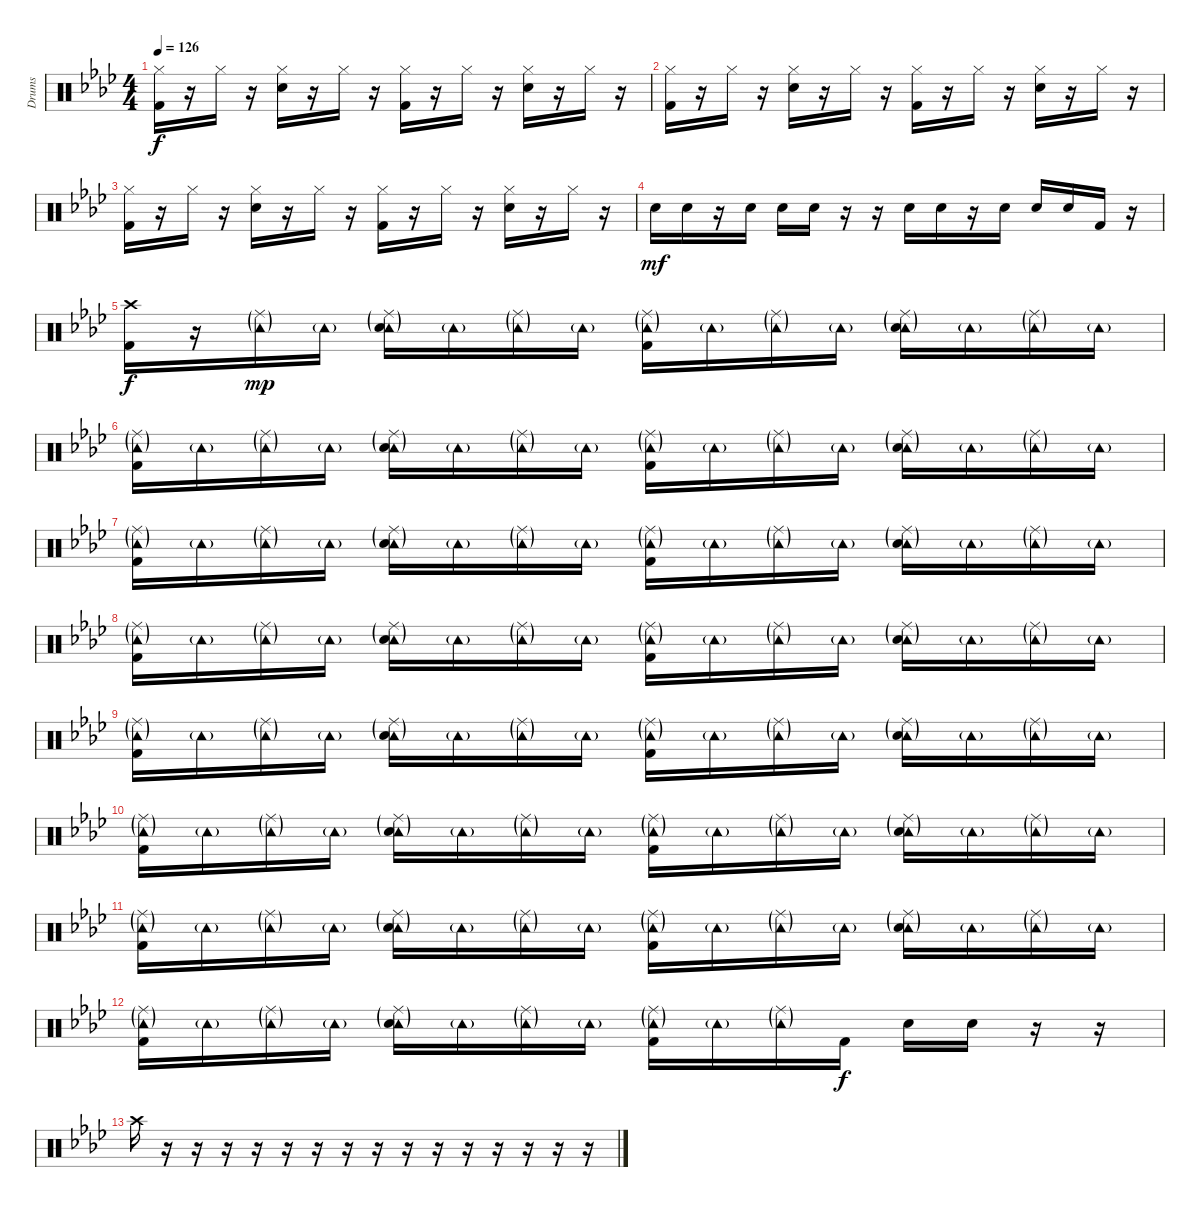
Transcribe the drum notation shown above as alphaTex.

\track ("Drums" "Drums") {instrument percussion}
\staff {score}
\articulation defaults
\ts (4 4)
\tempo 126
\clef neutral
\ks ab
("Hi-Hat (closed)" "Kick (hit) 2").16{dy f} r.16 "Hi-Hat (closed)".16 r.16 ("Hi-Hat (closed)" "Snare (hit) 2").16 r.16 "Hi-Hat (closed)".16 r.16 ("Hi-Hat (closed)" "Kick (hit) 2").16 r.16 "Hi-Hat (closed)".16 r.16 ("Hi-Hat (closed)" "Snare (hit) 2").16 r.16 "Hi-Hat (closed)".16 r.16 |
("Hi-Hat (closed)" "Kick (hit) 2").16 r.16 "Hi-Hat (closed)".16 r.16 ("Hi-Hat (closed)" "Snare (hit) 2").16 r.16 "Hi-Hat (closed)".16 r.16 ("Hi-Hat (closed)" "Kick (hit) 2").16 r.16 "Hi-Hat (closed)".16 r.16 ("Hi-Hat (closed)" "Snare (hit) 2").16 r.16 "Hi-Hat (closed)".16 r.16 |
("Hi-Hat (closed)" "Kick (hit) 2").16 r.16 "Hi-Hat (closed)".16 r.16 ("Hi-Hat (closed)" "Snare (hit) 2").16 r.16 "Hi-Hat (closed)".16 r.16 ("Hi-Hat (closed)" "Kick (hit) 2").16 r.16 "Hi-Hat (closed)".16 r.16 ("Hi-Hat (closed)" "Snare (hit) 2").16 r.16 "Hi-Hat (closed)".16 r.16 |
"Electric Snare (hit)".16{dy mf} "Electric Snare (hit)".16 r.16 "Electric Snare (hit)".16 "Electric Snare (hit)".16 "Electric Snare (hit)".16 r.16 r.16 "Electric Snare (hit)".16 "Electric Snare (hit)".16 r.16 "Electric Snare (hit)".16 "Electric Snare (hit)".16 "Electric Snare (hit)".16 "Kick (hit) 2".16 r.16 |
("Crash high (hit)" "Kick (hit) 2").16{dy f} r.16 ("Ride (middle)"{g} "Tambourine (hit)"{g}).16{dy mp} "Tambourine (hit)"{g}.16 ("Ride (middle)"{g} "Tambourine (hit)"{g} "Snare (hit) 2").16 "Tambourine (hit)"{g}.16 ("Ride (middle)"{g} "Tambourine (hit)"{g}).16 "Tambourine (hit)"{g}.16 ("Ride (middle)"{g} "Tambourine (hit)"{g} "Kick (hit) 2").16 "Tambourine (hit)"{g}.16 ("Ride (middle)"{g} "Tambourine (hit)"{g}).16 "Tambourine (hit)"{g}.16 ("Ride (middle)"{g} "Tambourine (hit)"{g} "Snare (hit) 2").16 "Tambourine (hit)"{g}.16 ("Ride (middle)"{g} "Tambourine (hit)"{g}).16 "Tambourine (hit)"{g}.16 |
("Ride (middle)"{g} "Tambourine (hit)"{g} "Kick (hit) 2").16 "Tambourine (hit)"{g}.16 ("Ride (middle)"{g} "Tambourine (hit)"{g}).16 "Tambourine (hit)"{g}.16 ("Ride (middle)"{g} "Tambourine (hit)"{g} "Snare (hit) 2").16 "Tambourine (hit)"{g}.16 ("Ride (middle)"{g} "Tambourine (hit)"{g}).16 "Tambourine (hit)"{g}.16 ("Ride (middle)"{g} "Tambourine (hit)"{g} "Kick (hit) 2").16 "Tambourine (hit)"{g}.16 ("Ride (middle)"{g} "Tambourine (hit)"{g}).16 "Tambourine (hit)"{g}.16 ("Ride (middle)"{g} "Tambourine (hit)"{g} "Snare (hit) 2").16 "Tambourine (hit)"{g}.16 ("Ride (middle)"{g} "Tambourine (hit)"{g}).16 "Tambourine (hit)"{g}.16 |
("Ride (middle)"{g} "Tambourine (hit)"{g} "Kick (hit) 2").16 "Tambourine (hit)"{g}.16 ("Ride (middle)"{g} "Tambourine (hit)"{g}).16 "Tambourine (hit)"{g}.16 ("Ride (middle)"{g} "Tambourine (hit)"{g} "Snare (hit) 2").16 "Tambourine (hit)"{g}.16 ("Ride (middle)"{g} "Tambourine (hit)"{g}).16 "Tambourine (hit)"{g}.16 ("Ride (middle)"{g} "Tambourine (hit)"{g} "Kick (hit) 2").16 "Tambourine (hit)"{g}.16 ("Ride (middle)"{g} "Tambourine (hit)"{g}).16 "Tambourine (hit)"{g}.16 ("Ride (middle)"{g} "Tambourine (hit)"{g} "Snare (hit) 2").16 "Tambourine (hit)"{g}.16 ("Ride (middle)"{g} "Tambourine (hit)"{g}).16 "Tambourine (hit)"{g}.16 |
("Ride (middle)"{g} "Tambourine (hit)"{g} "Kick (hit) 2").16 "Tambourine (hit)"{g}.16 ("Ride (middle)"{g} "Tambourine (hit)"{g}).16 "Tambourine (hit)"{g}.16 ("Ride (middle)"{g} "Tambourine (hit)"{g} "Snare (hit) 2").16 "Tambourine (hit)"{g}.16 ("Ride (middle)"{g} "Tambourine (hit)"{g}).16 "Tambourine (hit)"{g}.16 ("Ride (middle)"{g} "Tambourine (hit)"{g} "Kick (hit) 2").16 "Tambourine (hit)"{g}.16 ("Ride (middle)"{g} "Tambourine (hit)"{g}).16 "Tambourine (hit)"{g}.16 ("Ride (middle)"{g} "Tambourine (hit)"{g} "Snare (hit) 2").16 "Tambourine (hit)"{g}.16 ("Ride (middle)"{g} "Tambourine (hit)"{g}).16 "Tambourine (hit)"{g}.16 |
("Ride (middle)"{g} "Tambourine (hit)"{g} "Kick (hit) 2").16 "Tambourine (hit)"{g}.16 ("Ride (middle)"{g} "Tambourine (hit)"{g}).16 "Tambourine (hit)"{g}.16 ("Ride (middle)"{g} "Tambourine (hit)"{g} "Snare (hit) 2").16 "Tambourine (hit)"{g}.16 ("Ride (middle)"{g} "Tambourine (hit)"{g}).16 "Tambourine (hit)"{g}.16 ("Ride (middle)"{g} "Tambourine (hit)"{g} "Kick (hit) 2").16 "Tambourine (hit)"{g}.16 ("Ride (middle)"{g} "Tambourine (hit)"{g}).16 "Tambourine (hit)"{g}.16 ("Ride (middle)"{g} "Tambourine (hit)"{g} "Snare (hit) 2").16 "Tambourine (hit)"{g}.16 ("Ride (middle)"{g} "Tambourine (hit)"{g}).16 "Tambourine (hit)"{g}.16 |
("Ride (middle)"{g} "Tambourine (hit)"{g} "Kick (hit) 2").16 "Tambourine (hit)"{g}.16 ("Ride (middle)"{g} "Tambourine (hit)"{g}).16 "Tambourine (hit)"{g}.16 ("Ride (middle)"{g} "Tambourine (hit)"{g} "Snare (hit) 2").16 "Tambourine (hit)"{g}.16 ("Ride (middle)"{g} "Tambourine (hit)"{g}).16 "Tambourine (hit)"{g}.16 ("Ride (middle)"{g} "Tambourine (hit)"{g} "Kick (hit) 2").16 "Tambourine (hit)"{g}.16 ("Ride (middle)"{g} "Tambourine (hit)"{g}).16 "Tambourine (hit)"{g}.16 ("Ride (middle)"{g} "Tambourine (hit)"{g} "Snare (hit) 2").16 "Tambourine (hit)"{g}.16 ("Ride (middle)"{g} "Tambourine (hit)"{g}).16 "Tambourine (hit)"{g}.16 |
("Ride (middle)"{g} "Tambourine (hit)"{g} "Kick (hit) 2").16 "Tambourine (hit)"{g}.16 ("Ride (middle)"{g} "Tambourine (hit)"{g}).16 "Tambourine (hit)"{g}.16 ("Ride (middle)"{g} "Tambourine (hit)"{g} "Snare (hit) 2").16 "Tambourine (hit)"{g}.16 ("Ride (middle)"{g} "Tambourine (hit)"{g}).16 "Tambourine (hit)"{g}.16 ("Ride (middle)"{g} "Tambourine (hit)"{g} "Kick (hit) 2").16 "Tambourine (hit)"{g}.16 ("Ride (middle)"{g} "Tambourine (hit)"{g}).16 "Tambourine (hit)"{g}.16 ("Ride (middle)"{g} "Tambourine (hit)"{g} "Snare (hit) 2").16 "Tambourine (hit)"{g}.16 ("Ride (middle)"{g} "Tambourine (hit)"{g}).16 "Tambourine (hit)"{g}.16 |
("Ride (middle)"{g} "Tambourine (hit)"{g} "Kick (hit) 2").16 "Tambourine (hit)"{g}.16 ("Ride (middle)"{g} "Tambourine (hit)"{g}).16 "Tambourine (hit)"{g}.16 ("Ride (middle)"{g} "Tambourine (hit)"{g} "Snare (hit) 2").16 "Tambourine (hit)"{g}.16 ("Ride (middle)"{g} "Tambourine (hit)"{g}).16 "Tambourine (hit)"{g}.16 ("Ride (middle)"{g} "Tambourine (hit)"{g} "Kick (hit) 2").16 "Tambourine (hit)"{g}.16 ("Ride (middle)"{g} "Tambourine (hit)"{g}).16 "Kick (hit) 2".16{dy f} "Snare (hit) 2".16 "Snare (hit) 2".16 r.16 r.16 |
"Crash high (hit)".16 r.16 r.16 r.16 r.16 r.16 r.16 r.16 r.16 r.16 r.16 r.16 r.16 r.16 r.16 r.16
